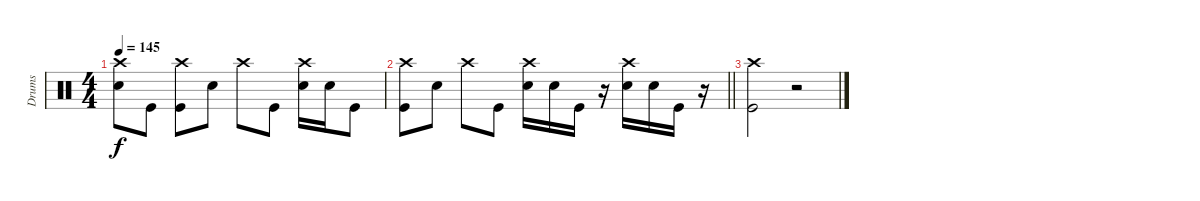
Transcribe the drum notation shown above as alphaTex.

\track ("Drums" "Drums") {instrument percussion}
\staff {score}
\articulation defaults
\ts (4 4)
\tempo 145
\clef neutral
\ks c
("Crash high (hit)" "Electric Snare (hit)").8{dy f} "Kick (hit)".8 ("Crash high (hit)" "Kick (hit)").8 "Electric Snare (hit)".8 "Crash high (hit)".8 "Kick (hit)".8 ("Crash high (hit)" "Electric Snare (hit)").16 "Electric Snare (hit)".16 "Kick (hit)".8 |
\barLineRight lightlight
("Crash high (hit)" "Kick (hit)").8 "Electric Snare (hit)".8 "Crash high (hit)".8 "Kick (hit)".8 ("Crash high (hit)" "Electric Snare (hit)").16 "Electric Snare (hit)".16 "Kick (hit)".16 r.16 ("Crash high (hit)" "Electric Snare (hit)").16 "Electric Snare (hit)".16 "Kick (hit)".16 r.16 |
("Crash high (hit)" "Kick (hit)").2 r.2
